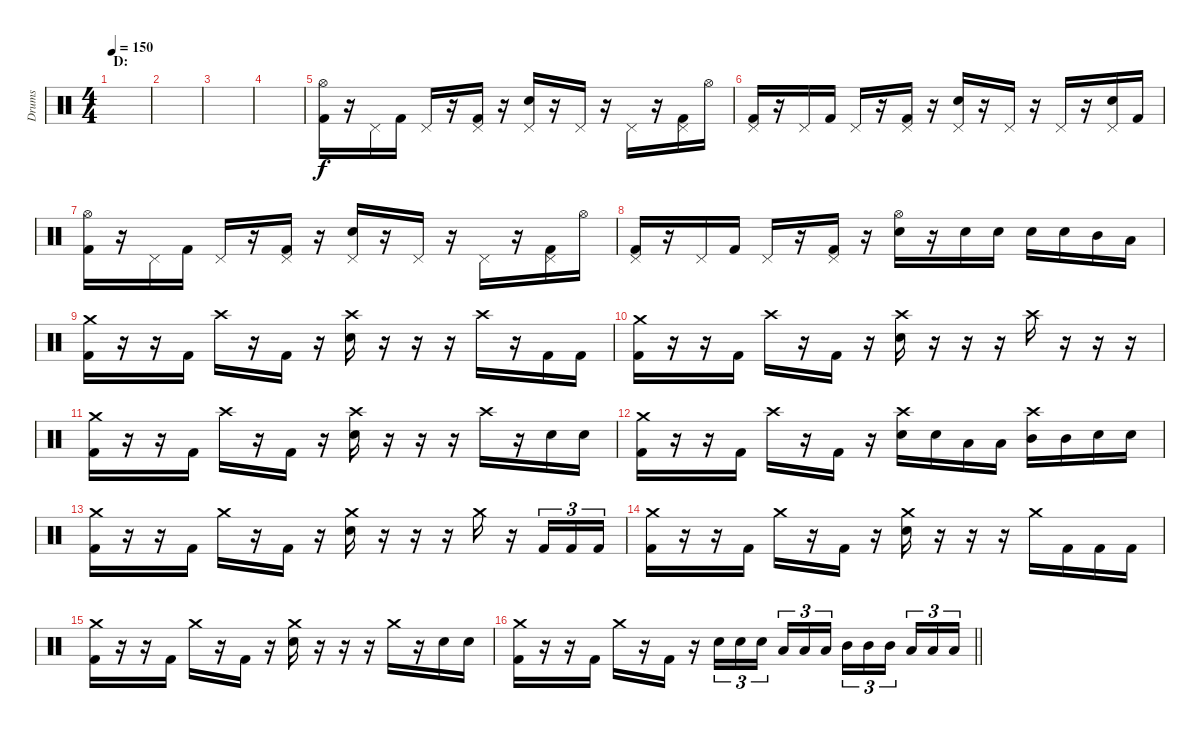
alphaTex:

\track ("Drums" "Drums") {instrument percussion}
\staff {score}
\articulation defaults
\ts (4 4)
\section ("" "D:")
\tempo 150
\clef neutral
\ks c
|
|
|
|
("Hi-Hat (open)" "Kick (hit) 2").16 r.16 "Pedal Hi-Hat (hit)".16 "Kick (hit) 2".16 "Pedal Hi-Hat (hit)".16 r.16 ("Pedal Hi-Hat (hit)" "Kick (hit) 2").16 r.16 ("Pedal Hi-Hat (hit)" "Electric Snare (hit)").16 r.16 "Pedal Hi-Hat (hit)".16 r.16 "Pedal Hi-Hat (hit)".16 r.16 ("Pedal Hi-Hat (hit)" "Kick (hit) 2").16 "Hi-Hat (open)".16 |
("Pedal Hi-Hat (hit)" "Kick (hit) 2").16 r.16 "Pedal Hi-Hat (hit)".16 "Kick (hit) 2".16 "Pedal Hi-Hat (hit)".16 r.16 ("Pedal Hi-Hat (hit)" "Kick (hit) 2").16 r.16 ("Pedal Hi-Hat (hit)" "Electric Snare (hit)").16 r.16 "Pedal Hi-Hat (hit)".16 r.16 "Pedal Hi-Hat (hit)".16 r.16 ("Pedal Hi-Hat (hit)" "Electric Snare (hit)").16 "Kick (hit) 2".16 |
("Hi-Hat (open)" "Kick (hit) 2").16 r.16 "Pedal Hi-Hat (hit)".16 "Kick (hit) 2".16 "Pedal Hi-Hat (hit)".16 r.16 ("Pedal Hi-Hat (hit)" "Kick (hit) 2").16 r.16 ("Pedal Hi-Hat (hit)" "Electric Snare (hit)").16 r.16 "Pedal Hi-Hat (hit)".16 r.16 "Pedal Hi-Hat (hit)".16 r.16 ("Pedal Hi-Hat (hit)" "Kick (hit) 2").16 "Hi-Hat (open)".16 |
("Pedal Hi-Hat (hit)" "Kick (hit) 2").16 r.16 "Pedal Hi-Hat (hit)".16 "Kick (hit) 2".16 "Pedal Hi-Hat (hit)".16 r.16 ("Pedal Hi-Hat (hit)" "Kick (hit) 2").16 r.16 ("Hi-Hat (open)" "Electric Snare (hit)").16 r.16 "Electric Snare (hit)".16 "Electric Snare (hit)".16 "Electric Snare (hit)".16 "Electric Snare (hit)".16 "Mid Tom (hit)".16 "Low Tom (hit)".16 |
("Crash medium (hit)" "Kick (hit) 2").16 r.16 r.16 "Kick (hit) 2".16 "Crash high (hit)".16 r.16 "Kick (hit) 2".16 r.16 ("Crash high (hit)" "Electric Snare (hit)").16 r.16 r.16 r.16 "Crash high (hit)".16 r.16 "Kick (hit) 2".16 "Kick (hit) 2".16 |
("Crash medium (hit)" "Kick (hit) 2").16 r.16 r.16 "Kick (hit) 2".16 "Crash high (hit)".16 r.16 "Kick (hit) 2".16 r.16 ("Crash high (hit)" "Electric Snare (hit)").16 r.16 r.16 r.16 "Crash high (hit)".16 r.16 r.16 r.16 |
("Crash medium (hit)" "Kick (hit) 2").16 r.16 r.16 "Kick (hit) 2".16 "Crash high (hit)".16 r.16 "Kick (hit) 2".16 r.16 ("Crash high (hit)" "Electric Snare (hit)").16 r.16 r.16 r.16 "Crash high (hit)".16 r.16 "Electric Snare (hit)".16 "Electric Snare (hit)".16 |
("Crash medium (hit)" "Kick (hit) 2").16 r.16 r.16 "Kick (hit) 2".16 "Crash high (hit)".16 r.16 "Kick (hit) 2".16 r.16 ("Crash high (hit)" "Electric Snare (hit)").16 "Electric Snare (hit)".16 "Low Tom (hit)".16 "Low Tom (hit)".16 ("Crash high (hit)" "Mid Tom (hit)").16 "Mid Tom (hit)".16 "Electric Snare (hit)".16 "Electric Snare (hit)".16 |
("Crash medium (hit)" "Kick (hit) 2").16 r.16 r.16 "Kick (hit) 2".16 "Crash medium (hit)".16 r.16 "Kick (hit) 2".16 r.16 ("Crash medium (hit)" "Electric Snare (hit)").16 r.16 r.16 r.16 "Crash medium (hit)".16 r.16 "Kick (hit) 2".16{tu (3 2)} "Kick (hit) 2".16{tu (3 2)} "Kick (hit) 2".16{tu (3 2)} |
("Crash medium (hit)" "Kick (hit) 2").16 r.16 r.16 "Kick (hit) 2".16 "Crash medium (hit)".16 r.16 "Kick (hit) 2".16 r.16 ("Crash medium (hit)" "Electric Snare (hit)").16 r.16 r.16 r.16 "Crash medium (hit)".16 "Kick (hit) 2".16 "Kick (hit) 2".16 "Kick (hit) 2".16 |
("Crash medium (hit)" "Kick (hit) 2").16 r.16 r.16 "Kick (hit) 2".16 "Crash medium (hit)".16 r.16 "Kick (hit) 2".16 r.16 ("Crash medium (hit)" "Electric Snare (hit)").16 r.16 r.16 r.16 "Crash medium (hit)".16 r.16 "Electric Snare (hit)".16 "Electric Snare (hit)".16 |
\barLineRight lightlight
("Crash medium (hit)" "Kick (hit) 2").16 r.16 r.16 "Kick (hit) 2".16 "Crash medium (hit)".16 r.16 "Kick (hit) 2".16 r.16 "Electric Snare (hit)".16{tu (3 2)} "Electric Snare (hit)".16{tu (3 2)} "Electric Snare (hit)".16{tu (3 2)} "Low Tom (hit)".16{tu (3 2)} "Low Tom (hit)".16{tu (3 2)} "Low Tom (hit)".16{tu (3 2)} "Mid Tom (hit)".16{tu (3 2)} "Mid Tom (hit)".16{tu (3 2)} "Mid Tom (hit)".16{tu (3 2)} "Low Tom (hit)".16{tu (3 2)} "Low Tom (hit)".16{tu (3 2)} "Low Tom (hit)".16{tu (3 2)}
